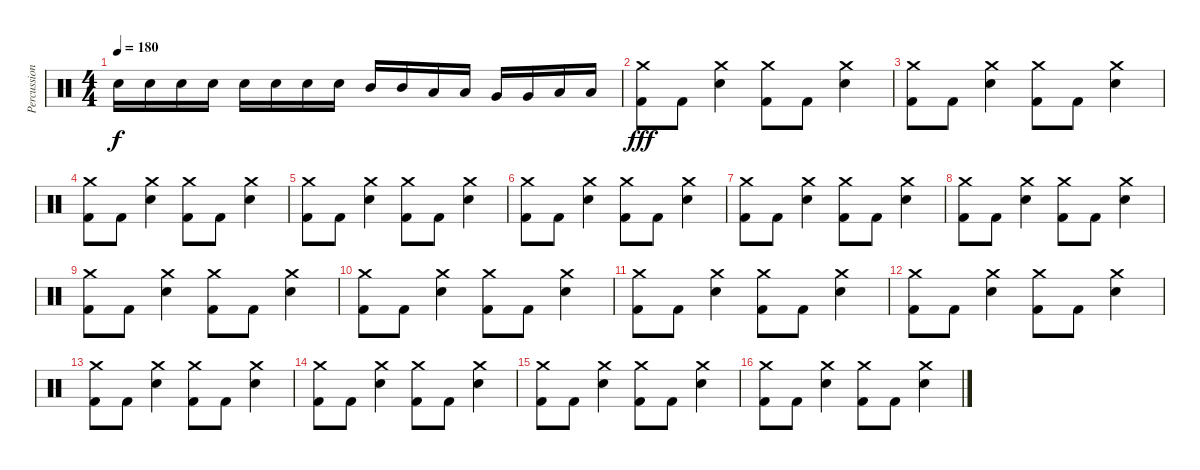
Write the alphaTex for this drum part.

\track ("Percussion" "Percussion") {instrument percussion}
\staff {score}
\articulation defaults
\ts (4 4)
\tempo 180
\clef neutral
\ks c "Electric Snare (hit)".16{dy f} "Electric Snare (hit)".16 "Electric Snare (hit)".16 "Electric Snare (hit)".16 "Electric Snare (hit)".16 "Electric Snare (hit)".16 "Electric Snare (hit)".16 "Electric Snare (hit)".16 "Mid Tom (hit)".16 "Mid Tom (hit)".16 "Low Tom (hit)".16 "Low Tom (hit)".16 "Very Low Tom (hit)".16 "Very Low Tom (hit)".16 "Low Floor Tom (hit)".16 "Low Floor Tom (hit)".16
|
("Crash medium (hit)" "Kick (hit) 2").8{dy fff} "Kick (hit) 2".8 ("Crash medium (hit)" "Electric Snare (hit)").4 ("Crash medium (hit)" "Kick (hit) 2").8 "Kick (hit) 2".8 ("Crash medium (hit)" "Electric Snare (hit)").4 |
("Crash medium (hit)" "Kick (hit) 2").8 "Kick (hit) 2".8 ("Crash medium (hit)" "Electric Snare (hit)").4 ("Crash medium (hit)" "Kick (hit) 2").8 "Kick (hit) 2".8 ("Crash medium (hit)" "Electric Snare (hit)").4 |
("Crash medium (hit)" "Kick (hit) 2").8 "Kick (hit) 2".8 ("Crash medium (hit)" "Electric Snare (hit)").4 ("Crash medium (hit)" "Kick (hit) 2").8 "Kick (hit) 2".8 ("Crash medium (hit)" "Electric Snare (hit)").4 |
("Crash medium (hit)" "Kick (hit) 2").8 "Kick (hit) 2".8 ("Crash medium (hit)" "Electric Snare (hit)").4 ("Crash medium (hit)" "Kick (hit) 2").8 "Kick (hit) 2".8 ("Crash medium (hit)" "Electric Snare (hit)").4 |
("Crash medium (hit)" "Kick (hit) 2").8 "Kick (hit) 2".8 ("Crash medium (hit)" "Electric Snare (hit)").4 ("Crash medium (hit)" "Kick (hit) 2").8 "Kick (hit) 2".8 ("Crash medium (hit)" "Electric Snare (hit)").4 |
("Crash medium (hit)" "Kick (hit) 2").8 "Kick (hit) 2".8 ("Crash medium (hit)" "Electric Snare (hit)").4 ("Crash medium (hit)" "Kick (hit) 2").8 "Kick (hit) 2".8 ("Crash medium (hit)" "Electric Snare (hit)").4 |
("Crash medium (hit)" "Kick (hit) 2").8 "Kick (hit) 2".8 ("Crash medium (hit)" "Electric Snare (hit)").4 ("Crash medium (hit)" "Kick (hit) 2").8 "Kick (hit) 2".8 ("Crash medium (hit)" "Electric Snare (hit)").4 |
("Crash medium (hit)" "Kick (hit) 2").8 "Kick (hit) 2".8 ("Crash medium (hit)" "Electric Snare (hit)").4 ("Crash medium (hit)" "Kick (hit) 2").8 "Kick (hit) 2".8 ("Crash medium (hit)" "Electric Snare (hit)").4 |
("Crash medium (hit)" "Kick (hit) 2").8 "Kick (hit) 2".8 ("Crash medium (hit)" "Electric Snare (hit)").4 ("Crash medium (hit)" "Kick (hit) 2").8 "Kick (hit) 2".8 ("Crash medium (hit)" "Electric Snare (hit)").4 |
("Crash medium (hit)" "Kick (hit) 2").8 "Kick (hit) 2".8 ("Crash medium (hit)" "Electric Snare (hit)").4 ("Crash medium (hit)" "Kick (hit) 2").8 "Kick (hit) 2".8 ("Crash medium (hit)" "Electric Snare (hit)").4 |
("Crash medium (hit)" "Kick (hit) 2").8 "Kick (hit) 2".8 ("Crash medium (hit)" "Electric Snare (hit)").4 ("Crash medium (hit)" "Kick (hit) 2").8 "Kick (hit) 2".8 ("Crash medium (hit)" "Electric Snare (hit)").4 |
("Crash medium (hit)" "Kick (hit) 2").8 "Kick (hit) 2".8 ("Crash medium (hit)" "Electric Snare (hit)").4 ("Crash medium (hit)" "Kick (hit) 2").8 "Kick (hit) 2".8 ("Crash medium (hit)" "Electric Snare (hit)").4 |
("Crash medium (hit)" "Kick (hit) 2").8 "Kick (hit) 2".8 ("Crash medium (hit)" "Electric Snare (hit)").4 ("Crash medium (hit)" "Kick (hit) 2").8 "Kick (hit) 2".8 ("Crash medium (hit)" "Electric Snare (hit)").4 |
("Crash medium (hit)" "Kick (hit) 2").8 "Kick (hit) 2".8 ("Crash medium (hit)" "Electric Snare (hit)").4 ("Crash medium (hit)" "Kick (hit) 2").8 "Kick (hit) 2".8 ("Crash medium (hit)" "Electric Snare (hit)").4 |
("Crash medium (hit)" "Kick (hit) 2").8 "Kick (hit) 2".8 ("Crash medium (hit)" "Electric Snare (hit)").4 ("Crash medium (hit)" "Kick (hit) 2").8 "Kick (hit) 2".8 ("Crash medium (hit)" "Electric Snare (hit)").4
